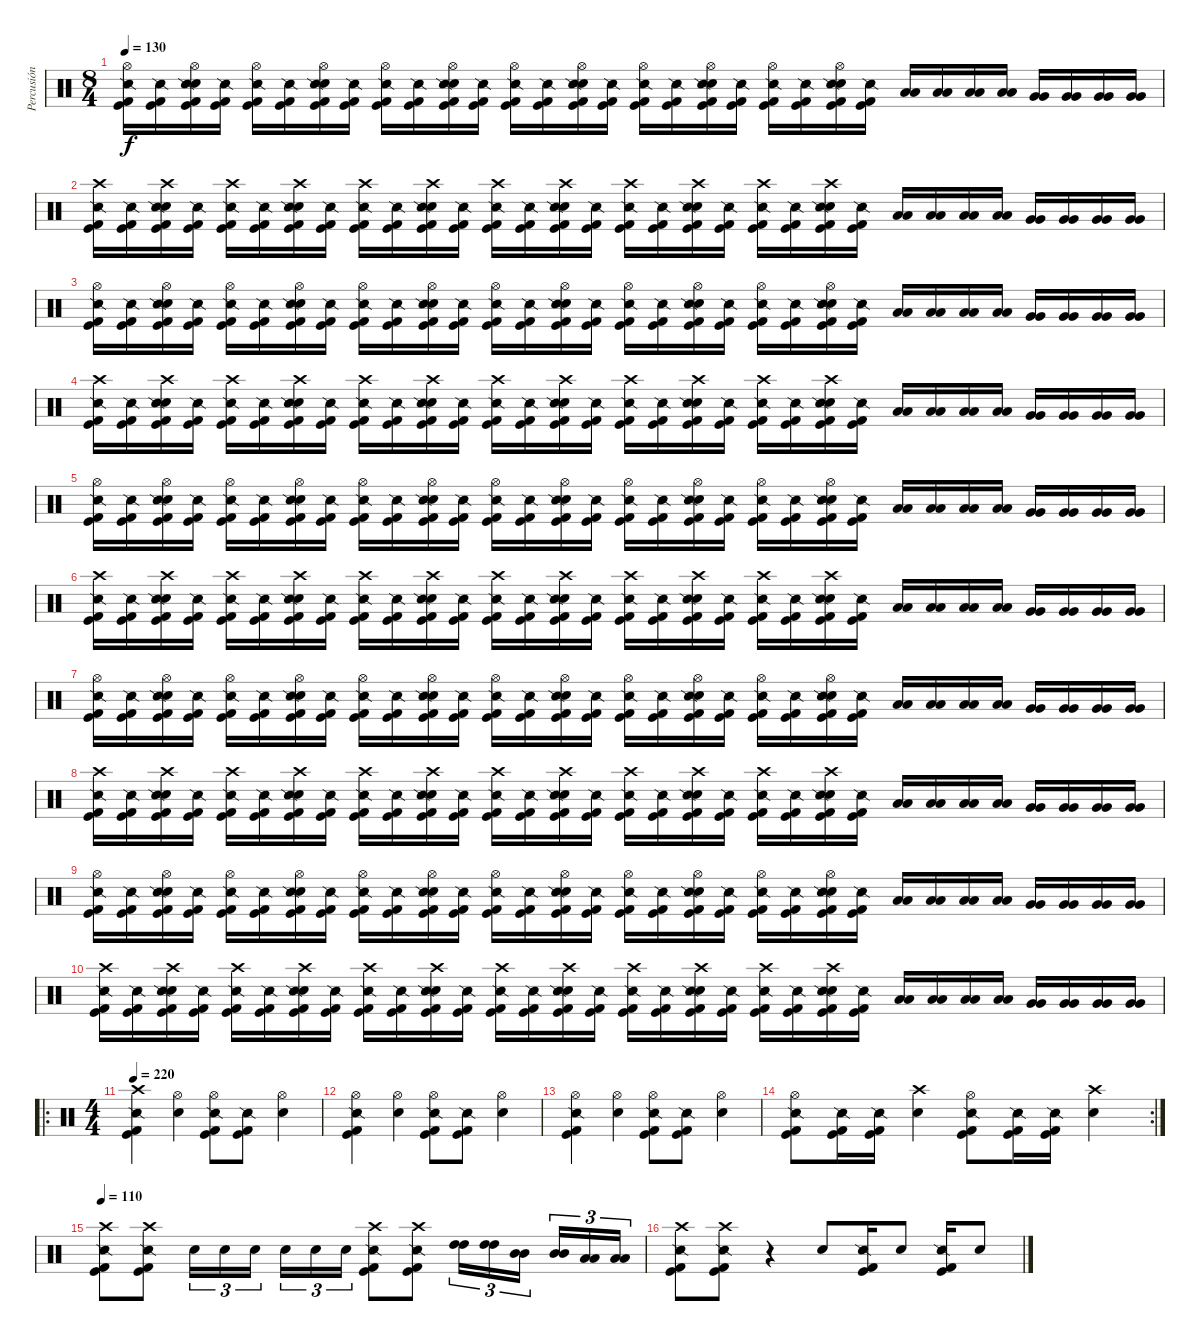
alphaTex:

\track ("Percusión" "Percusión") {instrument percussion}
\staff {score}
\articulation defaults
\ts (8 4)
\tempo 130
\clef neutral
\ks c
("Hi-Hat (open)" "Snare (side stick) 2" "Kick (hit)" "Kick (hit) 2").16{dy f} ("Snare (side stick) 2" "Kick (hit)" "Kick (hit) 2").16 ("Hi-Hat (open)" "Snare (hit) 2" "Snare (side stick) 2" "Kick (hit)" "Kick (hit) 2").16 ("Snare (side stick) 2" "Kick (hit)" "Kick (hit) 2").16 ("Hi-Hat (open)" "Snare (side stick) 2" "Kick (hit)" "Kick (hit) 2").16 ("Snare (side stick) 2" "Kick (hit)" "Kick (hit) 2").16 ("Hi-Hat (open)" "Snare (hit) 2" "Snare (side stick) 2" "Kick (hit)" "Kick (hit) 2").16 ("Snare (side stick) 2" "Kick (hit)" "Kick (hit) 2").16 ("Hi-Hat (open)" "Snare (side stick) 2" "Kick (hit)" "Kick (hit) 2").16 ("Snare (side stick) 2" "Kick (hit)" "Kick (hit) 2").16 ("Hi-Hat (open)" "Snare (hit) 2" "Snare (side stick) 2" "Kick (hit)" "Kick (hit) 2").16 ("Snare (side stick) 2" "Kick (hit)" "Kick (hit) 2").16 ("Hi-Hat (open)" "Snare (side stick) 2" "Kick (hit)" "Kick (hit) 2").16 ("Snare (side stick) 2" "Kick (hit)" "Kick (hit) 2").16 ("Hi-Hat (open)" "Snare (hit) 2" "Snare (side stick) 2" "Kick (hit)" "Kick (hit) 2").16 ("Snare (side stick) 2" "Kick (hit)" "Kick (hit) 2").16 ("Hi-Hat (open)" "Snare (side stick) 2" "Kick (hit)" "Kick (hit) 2").16 ("Snare (side stick) 2" "Kick (hit)" "Kick (hit) 2").16 ("Hi-Hat (open)" "Snare (hit) 2" "Snare (side stick) 2" "Kick (hit)" "Kick (hit) 2").16 ("Snare (side stick) 2" "Kick (hit)" "Kick (hit) 2").16 ("Hi-Hat (open)" "Snare (side stick) 2" "Kick (hit)" "Kick (hit) 2").16 ("Snare (side stick) 2" "Kick (hit)" "Kick (hit) 2").16 ("Hi-Hat (open)" "Snare (hit) 2" "Snare (side stick) 2" "Kick (hit)" "Kick (hit) 2").16 ("Snare (side stick) 2" "Kick (hit)" "Kick (hit) 2").16 ("Low Tom (hit)" "Low Tom (hit)").16 ("Low Tom (hit)" "Low Tom (hit)").16 ("Low Tom (hit)" "Low Tom (hit)").16 ("Low Tom (hit)" "Low Tom (hit)").16 ("Very Low Tom (hit)" "Very Low Tom (hit)").16 ("Very Low Tom (hit)" "Very Low Tom (hit)").16 ("Very Low Tom (hit)" "Very Low Tom (hit)").16 ("Very Low Tom (hit)" "Very Low Tom (hit)").16 |
("Crash high (hit)" "Snare (side stick) 2" "Kick (hit)" "Kick (hit) 2").16 ("Snare (side stick) 2" "Kick (hit)" "Kick (hit) 2").16 ("Crash high (hit)" "Snare (hit) 2" "Snare (side stick) 2" "Kick (hit)" "Kick (hit) 2").16 ("Snare (side stick) 2" "Kick (hit)" "Kick (hit) 2").16 ("Crash high (hit)" "Snare (side stick) 2" "Kick (hit)" "Kick (hit) 2").16 ("Snare (side stick) 2" "Kick (hit)" "Kick (hit) 2").16 ("Crash high (hit)" "Snare (hit) 2" "Snare (side stick) 2" "Kick (hit)" "Kick (hit) 2").16 ("Snare (side stick) 2" "Kick (hit)" "Kick (hit) 2").16 ("Crash high (hit)" "Snare (side stick) 2" "Kick (hit)" "Kick (hit) 2").16 ("Snare (side stick) 2" "Kick (hit)" "Kick (hit) 2").16 ("Crash high (hit)" "Snare (hit) 2" "Snare (side stick) 2" "Kick (hit)" "Kick (hit) 2").16 ("Snare (side stick) 2" "Kick (hit)" "Kick (hit) 2").16 ("Crash high (hit)" "Snare (side stick) 2" "Kick (hit)" "Kick (hit) 2").16 ("Snare (side stick) 2" "Kick (hit)" "Kick (hit) 2").16 ("Crash high (hit)" "Snare (hit) 2" "Snare (side stick) 2" "Kick (hit)" "Kick (hit) 2").16 ("Snare (side stick) 2" "Kick (hit)" "Kick (hit) 2").16 ("Crash high (hit)" "Snare (side stick) 2" "Kick (hit)" "Kick (hit) 2").16 ("Snare (side stick) 2" "Kick (hit)" "Kick (hit) 2").16 ("Crash high (hit)" "Snare (hit) 2" "Snare (side stick) 2" "Kick (hit)" "Kick (hit) 2").16 ("Snare (side stick) 2" "Kick (hit)" "Kick (hit) 2").16 ("Crash high (hit)" "Snare (side stick) 2" "Kick (hit)" "Kick (hit) 2").16 ("Snare (side stick) 2" "Kick (hit)" "Kick (hit) 2").16 ("Crash high (hit)" "Snare (hit) 2" "Snare (side stick) 2" "Kick (hit)" "Kick (hit) 2").16 ("Snare (side stick) 2" "Kick (hit)" "Kick (hit) 2").16 ("Low Tom (hit)" "Low Tom (hit)").16 ("Low Tom (hit)" "Low Tom (hit)").16 ("Low Tom (hit)" "Low Tom (hit)").16 ("Low Tom (hit)" "Low Tom (hit)").16 ("Very Low Tom (hit)" "Very Low Tom (hit)").16 ("Very Low Tom (hit)" "Very Low Tom (hit)").16 ("Very Low Tom (hit)" "Very Low Tom (hit)").16 ("Very Low Tom (hit)" "Very Low Tom (hit)").16 |
("Hi-Hat (open)" "Snare (side stick) 2" "Kick (hit)" "Kick (hit) 2").16 ("Snare (side stick) 2" "Kick (hit)" "Kick (hit) 2").16 ("Hi-Hat (open)" "Snare (hit) 2" "Snare (side stick) 2" "Kick (hit)" "Kick (hit) 2").16 ("Snare (side stick) 2" "Kick (hit)" "Kick (hit) 2").16 ("Hi-Hat (open)" "Snare (side stick) 2" "Kick (hit)" "Kick (hit) 2").16 ("Snare (side stick) 2" "Kick (hit)" "Kick (hit) 2").16 ("Hi-Hat (open)" "Snare (hit) 2" "Snare (side stick) 2" "Kick (hit)" "Kick (hit) 2").16 ("Snare (side stick) 2" "Kick (hit)" "Kick (hit) 2").16 ("Hi-Hat (open)" "Snare (side stick) 2" "Kick (hit)" "Kick (hit) 2").16 ("Snare (side stick) 2" "Kick (hit)" "Kick (hit) 2").16 ("Hi-Hat (open)" "Snare (hit) 2" "Snare (side stick) 2" "Kick (hit)" "Kick (hit) 2").16 ("Snare (side stick) 2" "Kick (hit)" "Kick (hit) 2").16 ("Hi-Hat (open)" "Snare (side stick) 2" "Kick (hit)" "Kick (hit) 2").16 ("Snare (side stick) 2" "Kick (hit)" "Kick (hit) 2").16 ("Hi-Hat (open)" "Snare (hit) 2" "Snare (side stick) 2" "Kick (hit)" "Kick (hit) 2").16 ("Snare (side stick) 2" "Kick (hit)" "Kick (hit) 2").16 ("Hi-Hat (open)" "Snare (side stick) 2" "Kick (hit)" "Kick (hit) 2").16 ("Snare (side stick) 2" "Kick (hit)" "Kick (hit) 2").16 ("Hi-Hat (open)" "Snare (hit) 2" "Snare (side stick) 2" "Kick (hit)" "Kick (hit) 2").16 ("Snare (side stick) 2" "Kick (hit)" "Kick (hit) 2").16 ("Hi-Hat (open)" "Snare (side stick) 2" "Kick (hit)" "Kick (hit) 2").16 ("Snare (side stick) 2" "Kick (hit)" "Kick (hit) 2").16 ("Hi-Hat (open)" "Snare (hit) 2" "Snare (side stick) 2" "Kick (hit)" "Kick (hit) 2").16 ("Snare (side stick) 2" "Kick (hit)" "Kick (hit) 2").16 ("Low Tom (hit)" "Low Tom (hit)").16 ("Low Tom (hit)" "Low Tom (hit)").16 ("Low Tom (hit)" "Low Tom (hit)").16 ("Low Tom (hit)" "Low Tom (hit)").16 ("Very Low Tom (hit)" "Very Low Tom (hit)").16 ("Very Low Tom (hit)" "Very Low Tom (hit)").16 ("Very Low Tom (hit)" "Very Low Tom (hit)").16 ("Very Low Tom (hit)" "Very Low Tom (hit)").16 |
("Crash high (hit)" "Snare (side stick) 2" "Kick (hit)" "Kick (hit) 2").16 ("Snare (side stick) 2" "Kick (hit)" "Kick (hit) 2").16 ("Crash high (hit)" "Snare (hit) 2" "Snare (side stick) 2" "Kick (hit)" "Kick (hit) 2").16 ("Snare (side stick) 2" "Kick (hit)" "Kick (hit) 2").16 ("Crash high (hit)" "Snare (side stick) 2" "Kick (hit)" "Kick (hit) 2").16 ("Snare (side stick) 2" "Kick (hit)" "Kick (hit) 2").16 ("Crash high (hit)" "Snare (hit) 2" "Snare (side stick) 2" "Kick (hit)" "Kick (hit) 2").16 ("Snare (side stick) 2" "Kick (hit)" "Kick (hit) 2").16 ("Crash high (hit)" "Snare (side stick) 2" "Kick (hit)" "Kick (hit) 2").16 ("Snare (side stick) 2" "Kick (hit)" "Kick (hit) 2").16 ("Crash high (hit)" "Snare (hit) 2" "Snare (side stick) 2" "Kick (hit)" "Kick (hit) 2").16 ("Snare (side stick) 2" "Kick (hit)" "Kick (hit) 2").16 ("Crash high (hit)" "Snare (side stick) 2" "Kick (hit)" "Kick (hit) 2").16 ("Snare (side stick) 2" "Kick (hit)" "Kick (hit) 2").16 ("Crash high (hit)" "Snare (hit) 2" "Snare (side stick) 2" "Kick (hit)" "Kick (hit) 2").16 ("Snare (side stick) 2" "Kick (hit)" "Kick (hit) 2").16 ("Crash high (hit)" "Snare (side stick) 2" "Kick (hit)" "Kick (hit) 2").16 ("Snare (side stick) 2" "Kick (hit)" "Kick (hit) 2").16 ("Crash high (hit)" "Snare (hit) 2" "Snare (side stick) 2" "Kick (hit)" "Kick (hit) 2").16 ("Snare (side stick) 2" "Kick (hit)" "Kick (hit) 2").16 ("Crash high (hit)" "Snare (side stick) 2" "Kick (hit)" "Kick (hit) 2").16 ("Snare (side stick) 2" "Kick (hit)" "Kick (hit) 2").16 ("Crash high (hit)" "Snare (hit) 2" "Snare (side stick) 2" "Kick (hit)" "Kick (hit) 2").16 ("Snare (side stick) 2" "Kick (hit)" "Kick (hit) 2").16 ("Low Tom (hit)" "Low Tom (hit)").16 ("Low Tom (hit)" "Low Tom (hit)").16 ("Low Tom (hit)" "Low Tom (hit)").16 ("Low Tom (hit)" "Low Tom (hit)").16 ("Very Low Tom (hit)" "Very Low Tom (hit)").16 ("Very Low Tom (hit)" "Very Low Tom (hit)").16 ("Very Low Tom (hit)" "Very Low Tom (hit)").16 ("Very Low Tom (hit)" "Very Low Tom (hit)").16 |
("Hi-Hat (open)" "Snare (side stick) 2" "Kick (hit)" "Kick (hit) 2").16 ("Snare (side stick) 2" "Kick (hit)" "Kick (hit) 2").16 ("Hi-Hat (open)" "Snare (hit) 2" "Snare (side stick) 2" "Kick (hit)" "Kick (hit) 2").16 ("Snare (side stick) 2" "Kick (hit)" "Kick (hit) 2").16 ("Hi-Hat (open)" "Snare (side stick) 2" "Kick (hit)" "Kick (hit) 2").16 ("Snare (side stick) 2" "Kick (hit)" "Kick (hit) 2").16 ("Hi-Hat (open)" "Snare (hit) 2" "Snare (side stick) 2" "Kick (hit)" "Kick (hit) 2").16 ("Snare (side stick) 2" "Kick (hit)" "Kick (hit) 2").16 ("Hi-Hat (open)" "Snare (side stick) 2" "Kick (hit)" "Kick (hit) 2").16 ("Snare (side stick) 2" "Kick (hit)" "Kick (hit) 2").16 ("Hi-Hat (open)" "Snare (hit) 2" "Snare (side stick) 2" "Kick (hit)" "Kick (hit) 2").16 ("Snare (side stick) 2" "Kick (hit)" "Kick (hit) 2").16 ("Hi-Hat (open)" "Snare (side stick) 2" "Kick (hit)" "Kick (hit) 2").16 ("Snare (side stick) 2" "Kick (hit)" "Kick (hit) 2").16 ("Hi-Hat (open)" "Snare (hit) 2" "Snare (side stick) 2" "Kick (hit)" "Kick (hit) 2").16 ("Snare (side stick) 2" "Kick (hit)" "Kick (hit) 2").16 ("Hi-Hat (open)" "Snare (side stick) 2" "Kick (hit)" "Kick (hit) 2").16 ("Snare (side stick) 2" "Kick (hit)" "Kick (hit) 2").16 ("Hi-Hat (open)" "Snare (hit) 2" "Snare (side stick) 2" "Kick (hit)" "Kick (hit) 2").16 ("Snare (side stick) 2" "Kick (hit)" "Kick (hit) 2").16 ("Hi-Hat (open)" "Snare (side stick) 2" "Kick (hit)" "Kick (hit) 2").16 ("Snare (side stick) 2" "Kick (hit)" "Kick (hit) 2").16 ("Hi-Hat (open)" "Snare (hit) 2" "Snare (side stick) 2" "Kick (hit)" "Kick (hit) 2").16 ("Snare (side stick) 2" "Kick (hit)" "Kick (hit) 2").16 ("Low Tom (hit)" "Low Tom (hit)").16 ("Low Tom (hit)" "Low Tom (hit)").16 ("Low Tom (hit)" "Low Tom (hit)").16 ("Low Tom (hit)" "Low Tom (hit)").16 ("Very Low Tom (hit)" "Very Low Tom (hit)").16 ("Very Low Tom (hit)" "Very Low Tom (hit)").16 ("Very Low Tom (hit)" "Very Low Tom (hit)").16 ("Very Low Tom (hit)" "Very Low Tom (hit)").16 |
("Crash high (hit)" "Snare (side stick) 2" "Kick (hit)" "Kick (hit) 2").16 ("Snare (side stick) 2" "Kick (hit)" "Kick (hit) 2").16 ("Crash high (hit)" "Snare (hit) 2" "Snare (side stick) 2" "Kick (hit)" "Kick (hit) 2").16 ("Snare (side stick) 2" "Kick (hit)" "Kick (hit) 2").16 ("Crash high (hit)" "Snare (side stick) 2" "Kick (hit)" "Kick (hit) 2").16 ("Snare (side stick) 2" "Kick (hit)" "Kick (hit) 2").16 ("Crash high (hit)" "Snare (hit) 2" "Snare (side stick) 2" "Kick (hit)" "Kick (hit) 2").16 ("Snare (side stick) 2" "Kick (hit)" "Kick (hit) 2").16 ("Crash high (hit)" "Snare (side stick) 2" "Kick (hit)" "Kick (hit) 2").16 ("Snare (side stick) 2" "Kick (hit)" "Kick (hit) 2").16 ("Crash high (hit)" "Snare (hit) 2" "Snare (side stick) 2" "Kick (hit)" "Kick (hit) 2").16 ("Snare (side stick) 2" "Kick (hit)" "Kick (hit) 2").16 ("Crash high (hit)" "Snare (side stick) 2" "Kick (hit)" "Kick (hit) 2").16 ("Snare (side stick) 2" "Kick (hit)" "Kick (hit) 2").16 ("Crash high (hit)" "Snare (hit) 2" "Snare (side stick) 2" "Kick (hit)" "Kick (hit) 2").16 ("Snare (side stick) 2" "Kick (hit)" "Kick (hit) 2").16 ("Crash high (hit)" "Snare (side stick) 2" "Kick (hit)" "Kick (hit) 2").16 ("Snare (side stick) 2" "Kick (hit)" "Kick (hit) 2").16 ("Crash high (hit)" "Snare (hit) 2" "Snare (side stick) 2" "Kick (hit)" "Kick (hit) 2").16 ("Snare (side stick) 2" "Kick (hit)" "Kick (hit) 2").16 ("Crash high (hit)" "Snare (side stick) 2" "Kick (hit)" "Kick (hit) 2").16 ("Snare (side stick) 2" "Kick (hit)" "Kick (hit) 2").16 ("Crash high (hit)" "Snare (hit) 2" "Snare (side stick) 2" "Kick (hit)" "Kick (hit) 2").16 ("Snare (side stick) 2" "Kick (hit)" "Kick (hit) 2").16 ("Low Tom (hit)" "Low Tom (hit)").16 ("Low Tom (hit)" "Low Tom (hit)").16 ("Low Tom (hit)" "Low Tom (hit)").16 ("Low Tom (hit)" "Low Tom (hit)").16 ("Very Low Tom (hit)" "Very Low Tom (hit)").16 ("Very Low Tom (hit)" "Very Low Tom (hit)").16 ("Very Low Tom (hit)" "Very Low Tom (hit)").16 ("Very Low Tom (hit)" "Very Low Tom (hit)").16 |
("Hi-Hat (open)" "Snare (side stick) 2" "Kick (hit)" "Kick (hit) 2").16 ("Snare (side stick) 2" "Kick (hit)" "Kick (hit) 2").16 ("Hi-Hat (open)" "Snare (hit) 2" "Snare (side stick) 2" "Kick (hit)" "Kick (hit) 2").16 ("Snare (side stick) 2" "Kick (hit)" "Kick (hit) 2").16 ("Hi-Hat (open)" "Snare (side stick) 2" "Kick (hit)" "Kick (hit) 2").16 ("Snare (side stick) 2" "Kick (hit)" "Kick (hit) 2").16 ("Hi-Hat (open)" "Snare (hit) 2" "Snare (side stick) 2" "Kick (hit)" "Kick (hit) 2").16 ("Snare (side stick) 2" "Kick (hit)" "Kick (hit) 2").16 ("Hi-Hat (open)" "Snare (side stick) 2" "Kick (hit)" "Kick (hit) 2").16 ("Snare (side stick) 2" "Kick (hit)" "Kick (hit) 2").16 ("Hi-Hat (open)" "Snare (hit) 2" "Snare (side stick) 2" "Kick (hit)" "Kick (hit) 2").16 ("Snare (side stick) 2" "Kick (hit)" "Kick (hit) 2").16 ("Hi-Hat (open)" "Snare (side stick) 2" "Kick (hit)" "Kick (hit) 2").16 ("Snare (side stick) 2" "Kick (hit)" "Kick (hit) 2").16 ("Hi-Hat (open)" "Snare (hit) 2" "Snare (side stick) 2" "Kick (hit)" "Kick (hit) 2").16 ("Snare (side stick) 2" "Kick (hit)" "Kick (hit) 2").16 ("Hi-Hat (open)" "Snare (side stick) 2" "Kick (hit)" "Kick (hit) 2").16 ("Snare (side stick) 2" "Kick (hit)" "Kick (hit) 2").16 ("Hi-Hat (open)" "Snare (hit) 2" "Snare (side stick) 2" "Kick (hit)" "Kick (hit) 2").16 ("Snare (side stick) 2" "Kick (hit)" "Kick (hit) 2").16 ("Hi-Hat (open)" "Snare (side stick) 2" "Kick (hit)" "Kick (hit) 2").16 ("Snare (side stick) 2" "Kick (hit)" "Kick (hit) 2").16 ("Hi-Hat (open)" "Snare (hit) 2" "Snare (side stick) 2" "Kick (hit)" "Kick (hit) 2").16 ("Snare (side stick) 2" "Kick (hit)" "Kick (hit) 2").16 ("Low Tom (hit)" "Low Tom (hit)").16 ("Low Tom (hit)" "Low Tom (hit)").16 ("Low Tom (hit)" "Low Tom (hit)").16 ("Low Tom (hit)" "Low Tom (hit)").16 ("Very Low Tom (hit)" "Very Low Tom (hit)").16 ("Very Low Tom (hit)" "Very Low Tom (hit)").16 ("Very Low Tom (hit)" "Very Low Tom (hit)").16 ("Very Low Tom (hit)" "Very Low Tom (hit)").16 |
("Crash high (hit)" "Snare (side stick) 2" "Kick (hit)" "Kick (hit) 2").16 ("Snare (side stick) 2" "Kick (hit)" "Kick (hit) 2").16 ("Crash high (hit)" "Snare (hit) 2" "Snare (side stick) 2" "Kick (hit)" "Kick (hit) 2").16 ("Snare (side stick) 2" "Kick (hit)" "Kick (hit) 2").16 ("Crash high (hit)" "Snare (side stick) 2" "Kick (hit)" "Kick (hit) 2").16 ("Snare (side stick) 2" "Kick (hit)" "Kick (hit) 2").16 ("Crash high (hit)" "Snare (hit) 2" "Snare (side stick) 2" "Kick (hit)" "Kick (hit) 2").16 ("Snare (side stick) 2" "Kick (hit)" "Kick (hit) 2").16 ("Crash high (hit)" "Snare (side stick) 2" "Kick (hit)" "Kick (hit) 2").16 ("Snare (side stick) 2" "Kick (hit)" "Kick (hit) 2").16 ("Crash high (hit)" "Snare (hit) 2" "Snare (side stick) 2" "Kick (hit)" "Kick (hit) 2").16 ("Snare (side stick) 2" "Kick (hit)" "Kick (hit) 2").16 ("Crash high (hit)" "Snare (side stick) 2" "Kick (hit)" "Kick (hit) 2").16 ("Snare (side stick) 2" "Kick (hit)" "Kick (hit) 2").16 ("Crash high (hit)" "Snare (hit) 2" "Snare (side stick) 2" "Kick (hit)" "Kick (hit) 2").16 ("Snare (side stick) 2" "Kick (hit)" "Kick (hit) 2").16 ("Crash high (hit)" "Snare (side stick) 2" "Kick (hit)" "Kick (hit) 2").16 ("Snare (side stick) 2" "Kick (hit)" "Kick (hit) 2").16 ("Crash high (hit)" "Snare (hit) 2" "Snare (side stick) 2" "Kick (hit)" "Kick (hit) 2").16 ("Snare (side stick) 2" "Kick (hit)" "Kick (hit) 2").16 ("Crash high (hit)" "Snare (side stick) 2" "Kick (hit)" "Kick (hit) 2").16 ("Snare (side stick) 2" "Kick (hit)" "Kick (hit) 2").16 ("Crash high (hit)" "Snare (hit) 2" "Snare (side stick) 2" "Kick (hit)" "Kick (hit) 2").16 ("Snare (side stick) 2" "Kick (hit)" "Kick (hit) 2").16 ("Low Tom (hit)" "Low Tom (hit)").16 ("Low Tom (hit)" "Low Tom (hit)").16 ("Low Tom (hit)" "Low Tom (hit)").16 ("Low Tom (hit)" "Low Tom (hit)").16 ("Very Low Tom (hit)" "Very Low Tom (hit)").16 ("Very Low Tom (hit)" "Very Low Tom (hit)").16 ("Very Low Tom (hit)" "Very Low Tom (hit)").16 ("Very Low Tom (hit)" "Very Low Tom (hit)").16 |
("Hi-Hat (open)" "Snare (side stick) 2" "Kick (hit)" "Kick (hit) 2").16 ("Snare (side stick) 2" "Kick (hit)" "Kick (hit) 2").16 ("Hi-Hat (open)" "Snare (hit) 2" "Snare (side stick) 2" "Kick (hit)" "Kick (hit) 2").16 ("Snare (side stick) 2" "Kick (hit)" "Kick (hit) 2").16 ("Hi-Hat (open)" "Snare (side stick) 2" "Kick (hit)" "Kick (hit) 2").16 ("Snare (side stick) 2" "Kick (hit)" "Kick (hit) 2").16 ("Hi-Hat (open)" "Snare (hit) 2" "Snare (side stick) 2" "Kick (hit)" "Kick (hit) 2").16 ("Snare (side stick) 2" "Kick (hit)" "Kick (hit) 2").16 ("Hi-Hat (open)" "Snare (side stick) 2" "Kick (hit)" "Kick (hit) 2").16 ("Snare (side stick) 2" "Kick (hit)" "Kick (hit) 2").16 ("Hi-Hat (open)" "Snare (hit) 2" "Snare (side stick) 2" "Kick (hit)" "Kick (hit) 2").16 ("Snare (side stick) 2" "Kick (hit)" "Kick (hit) 2").16 ("Hi-Hat (open)" "Snare (side stick) 2" "Kick (hit)" "Kick (hit) 2").16 ("Snare (side stick) 2" "Kick (hit)" "Kick (hit) 2").16 ("Hi-Hat (open)" "Snare (hit) 2" "Snare (side stick) 2" "Kick (hit)" "Kick (hit) 2").16 ("Snare (side stick) 2" "Kick (hit)" "Kick (hit) 2").16 ("Hi-Hat (open)" "Snare (side stick) 2" "Kick (hit)" "Kick (hit) 2").16 ("Snare (side stick) 2" "Kick (hit)" "Kick (hit) 2").16 ("Hi-Hat (open)" "Snare (hit) 2" "Snare (side stick) 2" "Kick (hit)" "Kick (hit) 2").16 ("Snare (side stick) 2" "Kick (hit)" "Kick (hit) 2").16 ("Hi-Hat (open)" "Snare (side stick) 2" "Kick (hit)" "Kick (hit) 2").16 ("Snare (side stick) 2" "Kick (hit)" "Kick (hit) 2").16 ("Hi-Hat (open)" "Snare (hit) 2" "Snare (side stick) 2" "Kick (hit)" "Kick (hit) 2").16 ("Snare (side stick) 2" "Kick (hit)" "Kick (hit) 2").16 ("Low Tom (hit)" "Low Tom (hit)").16 ("Low Tom (hit)" "Low Tom (hit)").16 ("Low Tom (hit)" "Low Tom (hit)").16 ("Low Tom (hit)" "Low Tom (hit)").16 ("Very Low Tom (hit)" "Very Low Tom (hit)").16 ("Very Low Tom (hit)" "Very Low Tom (hit)").16 ("Very Low Tom (hit)" "Very Low Tom (hit)").16 ("Very Low Tom (hit)" "Very Low Tom (hit)").16 |
("Crash high (hit)" "Snare (side stick) 2" "Kick (hit)" "Kick (hit) 2").16 ("Snare (side stick) 2" "Kick (hit)" "Kick (hit) 2").16 ("Crash high (hit)" "Snare (hit) 2" "Snare (side stick) 2" "Kick (hit)" "Kick (hit) 2").16 ("Snare (side stick) 2" "Kick (hit)" "Kick (hit) 2").16 ("Crash high (hit)" "Snare (side stick) 2" "Kick (hit)" "Kick (hit) 2").16 ("Snare (side stick) 2" "Kick (hit)" "Kick (hit) 2").16 ("Crash high (hit)" "Snare (hit) 2" "Snare (side stick) 2" "Kick (hit)" "Kick (hit) 2").16 ("Snare (side stick) 2" "Kick (hit)" "Kick (hit) 2").16 ("Crash high (hit)" "Snare (side stick) 2" "Kick (hit)" "Kick (hit) 2").16 ("Snare (side stick) 2" "Kick (hit)" "Kick (hit) 2").16 ("Crash high (hit)" "Snare (hit) 2" "Snare (side stick) 2" "Kick (hit)" "Kick (hit) 2").16 ("Snare (side stick) 2" "Kick (hit)" "Kick (hit) 2").16 ("Crash high (hit)" "Snare (side stick) 2" "Kick (hit)" "Kick (hit) 2").16 ("Snare (side stick) 2" "Kick (hit)" "Kick (hit) 2").16 ("Crash high (hit)" "Snare (hit) 2" "Snare (side stick) 2" "Kick (hit)" "Kick (hit) 2").16 ("Snare (side stick) 2" "Kick (hit)" "Kick (hit) 2").16 ("Crash high (hit)" "Snare (side stick) 2" "Kick (hit)" "Kick (hit) 2").16 ("Snare (side stick) 2" "Kick (hit)" "Kick (hit) 2").16 ("Crash high (hit)" "Snare (hit) 2" "Snare (side stick) 2" "Kick (hit)" "Kick (hit) 2").16 ("Snare (side stick) 2" "Kick (hit)" "Kick (hit) 2").16 ("Crash high (hit)" "Snare (side stick) 2" "Kick (hit)" "Kick (hit) 2").16 ("Snare (side stick) 2" "Kick (hit)" "Kick (hit) 2").16 ("Crash high (hit)" "Snare (hit) 2" "Snare (side stick) 2" "Kick (hit)" "Kick (hit) 2").16 ("Snare (side stick) 2" "Kick (hit)" "Kick (hit) 2").16 ("Low Tom (hit)" "Low Tom (hit)").16 ("Low Tom (hit)" "Low Tom (hit)").16 ("Low Tom (hit)" "Low Tom (hit)").16 ("Low Tom (hit)" "Low Tom (hit)").16 ("Very Low Tom (hit)" "Very Low Tom (hit)").16 ("Very Low Tom (hit)" "Very Low Tom (hit)").16 ("Very Low Tom (hit)" "Very Low Tom (hit)").16 ("Very Low Tom (hit)" "Very Low Tom (hit)").16 |
\ro
\ts (4 4)
\tempo 220
("Crash high (hit)" "Snare (side stick) 2" "Kick (hit)" "Kick (hit) 2").4 ("Hi-Hat (open)" "Snare (hit) 2").4 ("Hi-Hat (open)" "Snare (side stick) 2" "Kick (hit)" "Kick (hit) 2").8 ("Snare (side stick) 2" "Kick (hit)" "Kick (hit) 2").8 ("Hi-Hat (open)" "Snare (hit) 2").4 |
("Hi-Hat (open)" "Snare (side stick) 2" "Kick (hit)" "Kick (hit) 2").4 ("Hi-Hat (open)" "Snare (hit) 2").4 ("Hi-Hat (open)" "Snare (side stick) 2" "Kick (hit)" "Kick (hit) 2").8 ("Snare (side stick) 2" "Kick (hit)" "Kick (hit) 2").8 ("Hi-Hat (open)" "Snare (hit) 2").4 |
("Hi-Hat (open)" "Snare (side stick) 2" "Kick (hit)" "Kick (hit) 2").4 ("Hi-Hat (open)" "Snare (hit) 2").4 ("Hi-Hat (open)" "Snare (side stick) 2" "Kick (hit)" "Kick (hit) 2").8 ("Snare (side stick) 2" "Kick (hit)" "Kick (hit) 2").8 ("Hi-Hat (open)" "Snare (hit) 2").4 |
\rc 2
("Hi-Hat (open)" "Snare (side stick) 2" "Kick (hit)" "Kick (hit) 2").8 ("Snare (side stick) 2" "Kick (hit)" "Kick (hit) 2").16 ("Snare (side stick) 2" "Kick (hit)" "Kick (hit) 2").16 ("Crash high (hit)" "Snare (hit) 2").4 ("Hi-Hat (open)" "Snare (side stick) 2" "Kick (hit)" "Kick (hit) 2").8 ("Snare (side stick) 2" "Kick (hit)" "Kick (hit) 2").16 ("Snare (side stick) 2" "Kick (hit)" "Kick (hit) 2").16 ("Crash high (hit)" "Snare (hit) 2").4 |
\tempo 110
("Crash high (hit)" "Snare (side stick) 2" "Kick (hit)" "Kick (hit) 2").8 ("Crash high (hit)" "Snare (side stick) 2" "Kick (hit)" "Kick (hit) 2").8 "Snare (hit) 2".16{tu (3 2)} "Snare (hit) 2".16{tu (3 2)} "Snare (hit) 2".16{tu (3 2)} "Snare (hit) 2".16{tu (3 2)} "Snare (hit) 2".16{tu (3 2)} "Snare (hit) 2".16{tu (3 2)} ("Crash high (hit)" "Snare (side stick) 2" "Kick (hit)" "Kick (hit) 2").8 ("Crash high (hit)" "Snare (side stick) 2" "Kick (hit)" "Kick (hit) 2").8 ("High Tom (hit)" "High Tom (hit)").16{tu (3 2)} ("High Tom (hit)" "High Tom (hit)").16{tu (3 2)} ("Mid Tom (hit)" "Mid Tom (hit)").16{tu (3 2)} ("Mid Tom (hit)" "Mid Tom (hit)").16{tu (3 2)} ("Low Tom (hit)" "Low Tom (hit)").16{tu (3 2)} ("Low Tom (hit)" "Low Tom (hit)").16{tu (3 2)} |
("Crash high (hit)" "Snare (side stick) 2" "Kick (hit)" "Kick (hit) 2").8 ("Crash high (hit)" "Snare (side stick) 2" "Kick (hit)" "Kick (hit) 2").8 r.4 "Snare (hit) 2".8 ("Snare (side stick) 2" "Kick (hit)" "Kick (hit) 2").16 "Snare (hit) 2".8 ("Snare (side stick) 2" "Kick (hit)" "Kick (hit) 2").16 "Snare (hit) 2".8
